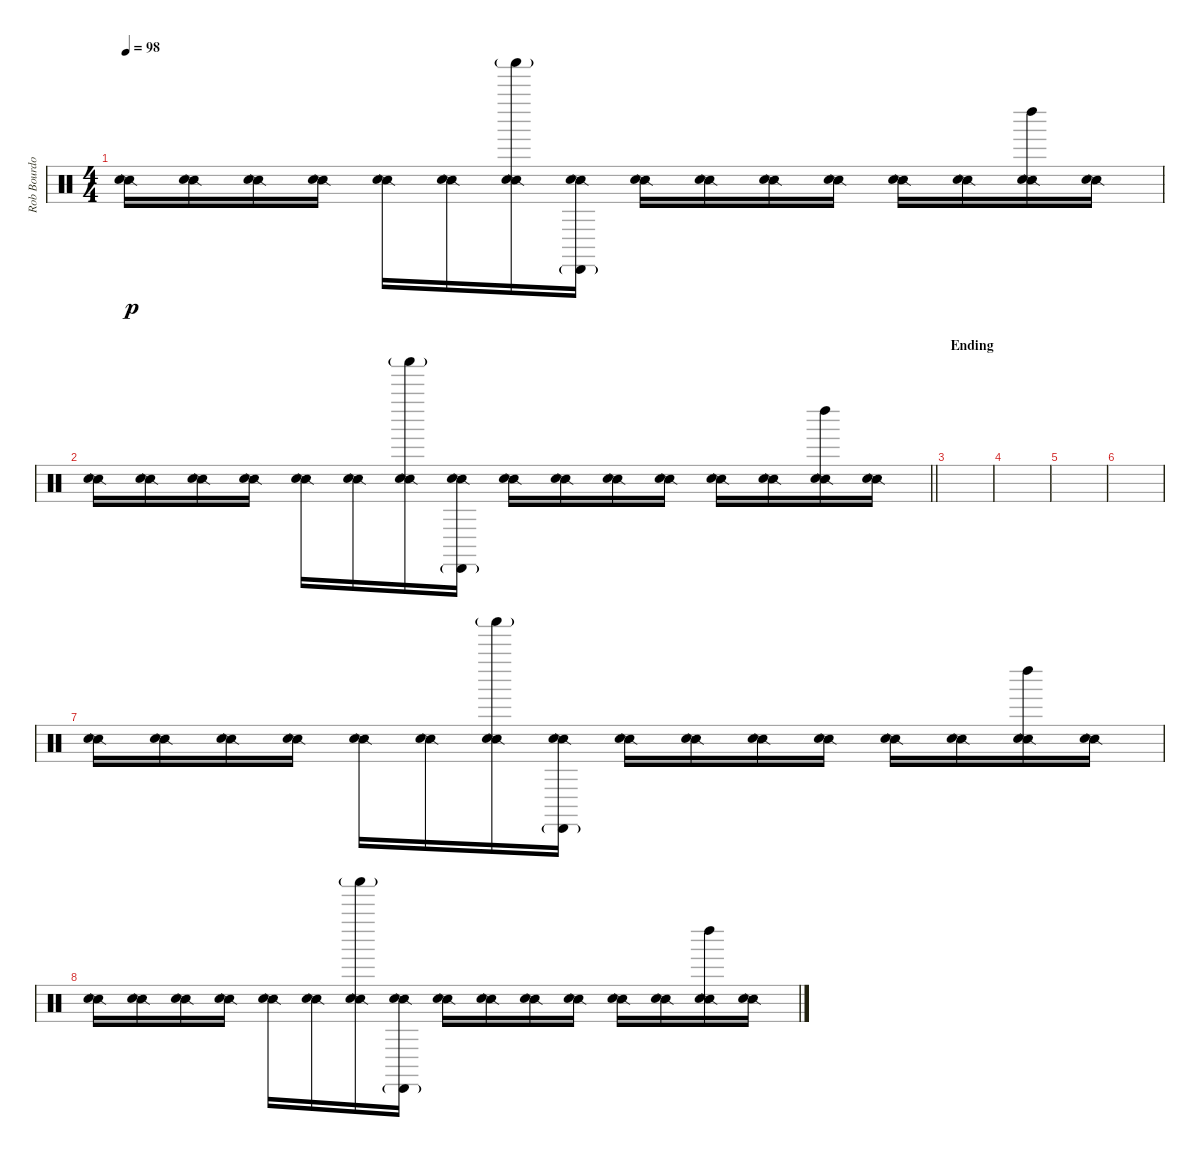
\track ("Rob Bourdon (Drums)" "Rob Bourdo") {instrument percussion}
\staff {score}
\articulation defaults
\ts (4 4)
\tempo 98
\clef neutral
\ks c
("Snare (side stick) 2" "Hand Clap (hit)").16{dy p} ("Snare (side stick) 2" "Hand Clap (hit)").16 ("Snare (side stick) 2" "Hand Clap (hit)").16 ("Snare (side stick) 2" "Hand Clap (hit)").16 ("Snare (side stick) 2" "Hand Clap (hit)").16 ("Snare (side stick) 2" "Hand Clap (hit)").16 ("Shaker (hit)"{g} "Snare (side stick) 2" "Hand Clap (hit)").16 ("Cabasa (hit)"{g} "Snare (side stick) 2" "Hand Clap (hit)").16 ("Snare (side stick) 2" "Hand Clap (hit)").16 ("Snare (side stick) 2" "Hand Clap (hit)").16 ("Snare (side stick) 2" "Hand Clap (hit)").16 ("Snare (side stick) 2" "Hand Clap (hit)").16 ("Snare (side stick) 2" "Hand Clap (hit)").16 ("Snare (side stick) 2" "Hand Clap (hit)").16 ("Left Maraca (hit)" "Snare (side stick) 2" "Hand Clap (hit)").16 ("Snare (side stick) 2" "Hand Clap (hit)").16 |
\barLineRight lightlight
("Snare (side stick) 2" "Hand Clap (hit)").16 ("Snare (side stick) 2" "Hand Clap (hit)").16 ("Snare (side stick) 2" "Hand Clap (hit)").16 ("Snare (side stick) 2" "Hand Clap (hit)").16 ("Snare (side stick) 2" "Hand Clap (hit)").16 ("Snare (side stick) 2" "Hand Clap (hit)").16 ("Shaker (hit)"{g} "Snare (side stick) 2" "Hand Clap (hit)").16 ("Cabasa (hit)"{g} "Snare (side stick) 2" "Hand Clap (hit)").16 ("Snare (side stick) 2" "Hand Clap (hit)").16 ("Snare (side stick) 2" "Hand Clap (hit)").16 ("Snare (side stick) 2" "Hand Clap (hit)").16 ("Snare (side stick) 2" "Hand Clap (hit)").16 ("Snare (side stick) 2" "Hand Clap (hit)").16 ("Snare (side stick) 2" "Hand Clap (hit)").16 ("Left Maraca (hit)" "Snare (side stick) 2" "Hand Clap (hit)").16 ("Snare (side stick) 2" "Hand Clap (hit)").16 |
\section ("" "Ending")
|
|
|
|
("Snare (side stick) 2" "Hand Clap (hit)").16 ("Snare (side stick) 2" "Hand Clap (hit)").16 ("Snare (side stick) 2" "Hand Clap (hit)").16 ("Snare (side stick) 2" "Hand Clap (hit)").16 ("Snare (side stick) 2" "Hand Clap (hit)").16 ("Snare (side stick) 2" "Hand Clap (hit)").16 ("Shaker (hit)"{g} "Snare (side stick) 2" "Hand Clap (hit)").16 ("Cabasa (hit)"{g} "Snare (side stick) 2" "Hand Clap (hit)").16 ("Snare (side stick) 2" "Hand Clap (hit)").16 ("Snare (side stick) 2" "Hand Clap (hit)").16 ("Snare (side stick) 2" "Hand Clap (hit)").16 ("Snare (side stick) 2" "Hand Clap (hit)").16 ("Snare (side stick) 2" "Hand Clap (hit)").16 ("Snare (side stick) 2" "Hand Clap (hit)").16 ("Left Maraca (hit)" "Snare (side stick) 2" "Hand Clap (hit)").16 ("Snare (side stick) 2" "Hand Clap (hit)").16 |
("Snare (side stick) 2" "Hand Clap (hit)").16 ("Snare (side stick) 2" "Hand Clap (hit)").16 ("Snare (side stick) 2" "Hand Clap (hit)").16 ("Snare (side stick) 2" "Hand Clap (hit)").16 ("Snare (side stick) 2" "Hand Clap (hit)").16 ("Snare (side stick) 2" "Hand Clap (hit)").16 ("Shaker (hit)"{g} "Snare (side stick) 2" "Hand Clap (hit)").16 ("Cabasa (hit)"{g} "Snare (side stick) 2" "Hand Clap (hit)").16 ("Snare (side stick) 2" "Hand Clap (hit)").16 ("Snare (side stick) 2" "Hand Clap (hit)").16 ("Snare (side stick) 2" "Hand Clap (hit)").16 ("Snare (side stick) 2" "Hand Clap (hit)").16 ("Snare (side stick) 2" "Hand Clap (hit)").16 ("Snare (side stick) 2" "Hand Clap (hit)").16 ("Left Maraca (hit)" "Snare (side stick) 2" "Hand Clap (hit)").16 ("Snare (side stick) 2" "Hand Clap (hit)").16
